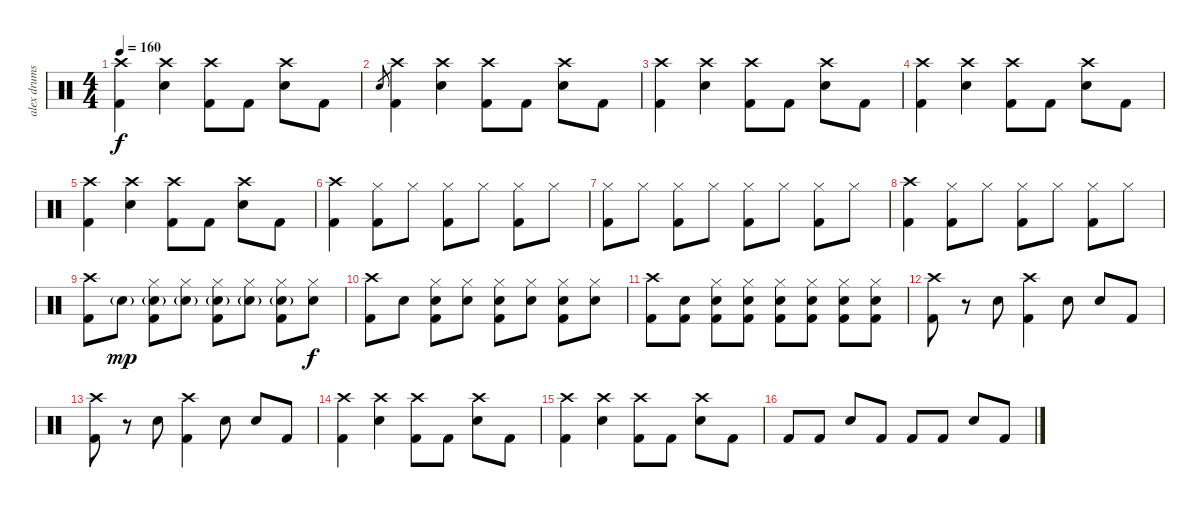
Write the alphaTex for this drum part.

\track ("alex drums" "alex drums") {instrument percussion}
\staff {score}
\articulation defaults
\ts (4 4)
\tempo 160
\clef neutral
\ks c
("Crash high (hit)" "Kick (hit) 2").4{dy f} ("Crash high (hit)" "Snare (hit) 2").4 ("Crash high (hit)" "Kick (hit) 2").8 "Kick (hit) 2".8 ("Crash high (hit)" "Snare (hit) 2").8 "Kick (hit) 2".8 |
"Snare (hit)".8{gr} ("Crash high (hit)" "Kick (hit) 2").4 ("Crash high (hit)" "Snare (hit) 2").4 ("Crash high (hit)" "Kick (hit) 2").8 "Kick (hit) 2".8 ("Crash high (hit)" "Snare (hit) 2").8 "Kick (hit) 2".8 |
("Crash high (hit)" "Kick (hit) 2").4 ("Crash high (hit)" "Snare (hit) 2").4 ("Crash high (hit)" "Kick (hit) 2").8 "Kick (hit) 2".8 ("Crash high (hit)" "Snare (hit) 2").8 "Kick (hit) 2".8 |
("Crash high (hit)" "Kick (hit) 2").4 ("Crash high (hit)" "Snare (hit) 2").4 ("Crash high (hit)" "Kick (hit) 2").8 "Kick (hit) 2".8 ("Crash high (hit)" "Snare (hit) 2").8 "Kick (hit) 2".8 |
("Crash high (hit)" "Kick (hit) 2").4 ("Crash high (hit)" "Snare (hit) 2").4 ("Crash high (hit)" "Kick (hit) 2").8 "Kick (hit) 2".8 ("Crash high (hit)" "Snare (hit) 2").8 "Kick (hit) 2".8 |
("Crash high (hit)" "Kick (hit) 2").4 ("Hi-Hat (closed)" "Kick (hit) 2").8 "Hi-Hat (closed)".8 ("Hi-Hat (closed)" "Kick (hit) 2").8 "Hi-Hat (closed)".8 ("Hi-Hat (closed)" "Kick (hit) 2").8 "Hi-Hat (closed)".8 |
("Hi-Hat (closed)" "Kick (hit) 2").8 "Hi-Hat (closed)".8 ("Hi-Hat (closed)" "Kick (hit) 2").8 "Hi-Hat (closed)".8 ("Hi-Hat (closed)" "Kick (hit) 2").8 "Hi-Hat (closed)".8 ("Hi-Hat (closed)" "Kick (hit) 2").8 "Hi-Hat (closed)".8 |
("Crash high (hit)" "Kick (hit) 2").4 ("Hi-Hat (closed)" "Kick (hit) 2").8 "Hi-Hat (closed)".8 ("Hi-Hat (closed)" "Kick (hit) 2").8 "Hi-Hat (closed)".8 ("Hi-Hat (closed)" "Kick (hit) 2").8 "Hi-Hat (closed)".8 |
("Crash high (hit)" "Kick (hit) 2").8 "Snare (hit) 2"{g}.8{dy mp} ("Hi-Hat (closed)" "Snare (hit) 2"{g} "Kick (hit) 2").8 ("Hi-Hat (closed)" "Snare (hit) 2"{g}).8 ("Hi-Hat (closed)" "Snare (hit) 2"{g} "Kick (hit) 2").8 ("Hi-Hat (closed)" "Snare (hit) 2"{g}).8 ("Hi-Hat (closed)" "Snare (hit) 2"{g} "Kick (hit) 2").8 ("Hi-Hat (closed)" "Snare (hit) 2").8{dy f} |
("Crash high (hit)" "Kick (hit) 2").8 "Snare (hit) 2".8 ("Hi-Hat (closed)" "Snare (hit) 2" "Kick (hit) 2").8 ("Hi-Hat (closed)" "Snare (hit) 2").8 ("Hi-Hat (closed)" "Snare (hit) 2" "Kick (hit) 2").8 ("Hi-Hat (closed)" "Snare (hit) 2").8 ("Hi-Hat (closed)" "Snare (hit) 2" "Kick (hit) 2").8 ("Hi-Hat (closed)" "Snare (hit) 2").8 |
("Crash high (hit)" "Kick (hit) 2").8 ("Snare (hit) 2" "Kick (hit) 2").8 ("Hi-Hat (closed)" "Snare (hit) 2" "Kick (hit) 2").8 ("Hi-Hat (closed)" "Snare (hit) 2" "Kick (hit) 2").8 ("Hi-Hat (closed)" "Snare (hit) 2" "Kick (hit) 2").8 ("Hi-Hat (closed)" "Snare (hit) 2" "Kick (hit) 2").8 ("Hi-Hat (closed)" "Snare (hit) 2" "Kick (hit) 2").8 ("Hi-Hat (closed)" "Snare (hit) 2" "Kick (hit) 2").8 |
("Crash high (hit)" "Kick (hit) 2").8 r.8 "Snare (hit) 2".8 ("Crash high (hit)" "Kick (hit) 2").4 "Snare (hit) 2".8 "Snare (hit) 2".8 "Kick (hit) 2".8 |
("Crash high (hit)" "Kick (hit) 2").8 r.8 "Snare (hit) 2".8 ("Crash high (hit)" "Kick (hit) 2").4 "Snare (hit) 2".8 "Snare (hit) 2".8 "Kick (hit) 2".8 |
("Crash high (hit)" "Kick (hit) 2").4 ("Crash high (hit)" "Snare (hit) 2").4 ("Crash high (hit)" "Kick (hit) 2").8 "Kick (hit) 2".8 ("Crash high (hit)" "Snare (hit) 2").8 "Kick (hit) 2".8 |
("Crash high (hit)" "Kick (hit) 2").4 ("Crash high (hit)" "Snare (hit) 2").4 ("Crash high (hit)" "Kick (hit) 2").8 "Kick (hit) 2".8 ("Crash high (hit)" "Snare (hit) 2").8 "Kick (hit) 2".8 |
"Kick (hit) 2".8 "Kick (hit) 2".8 "Snare (hit) 2".8 "Kick (hit) 2".8 "Kick (hit) 2".8 "Kick (hit) 2".8 "Snare (hit) 2".8 "Kick (hit) 2".8
